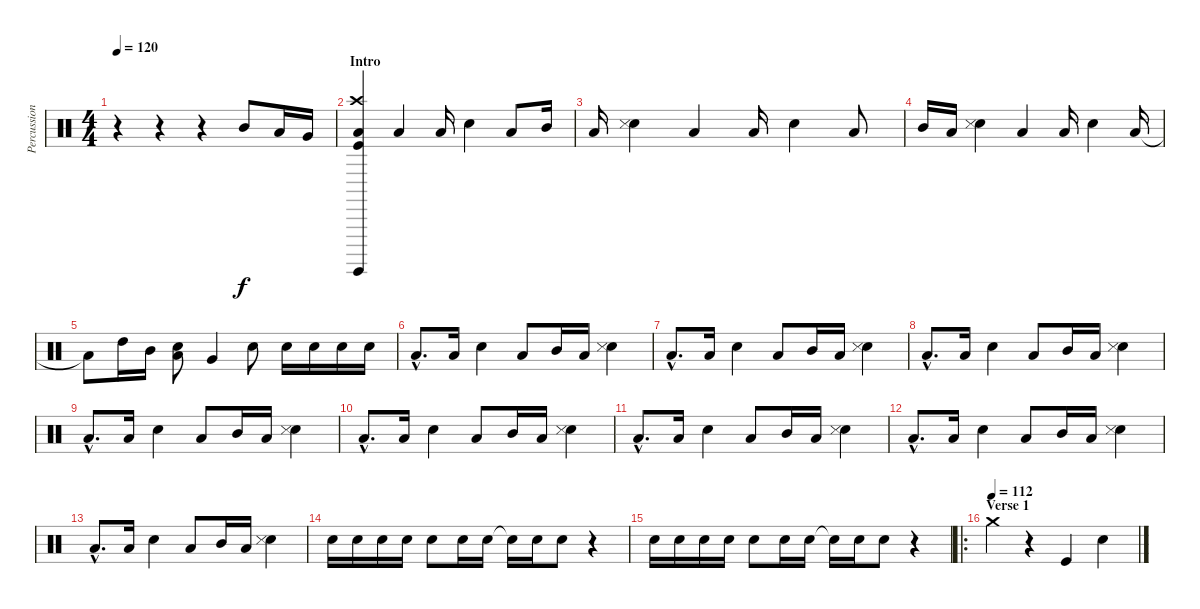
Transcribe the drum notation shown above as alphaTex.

\track ("Percussion 1" "Percussion") {instrument percussion}
\staff {score}
\articulation defaults
\ts (4 4)
\tempo 120
\clef neutral
\ks c
r.4{dy f} r.4 r.4 "Mid Tom (hit)".8 "Low Tom (hit)".16 "Very Low Tom (hit)".16 |
\section ("" "Intro")
("Crash high (hit)" "Kick (hit)" "Surdo (hit)" "Low Tom (hit)").4 "Low Tom (hit)".4 "Low Tom (hit)".16 "Electric Snare (hit)".4 "Low Tom (hit)".8 "Mid Tom (hit)".16 |
"Low Tom (hit)".16 ("Electric Snare (hit)" "Metronome (hit)").4 "Low Tom (hit)".4 "Low Tom (hit)".16 "Electric Snare (hit)".4 "Low Tom (hit)".8 |
"Mid Tom (hit)".16 "Low Tom (hit)".16 ("Electric Snare (hit)" "Metronome (hit)").4 "Low Tom (hit)".4 "Low Tom (hit)".16 "Electric Snare (hit)".4 "Low Tom (hit)".16 |
"Low Tom (hit)"{t}.8 "High Tom (hit)".16 "Mid Tom (hit)".16 ("Electric Snare (hit)" "Low Tom (hit)").8 "Very Low Tom (hit)".4 "Electric Snare (hit)".8 "Electric Snare (hit)".16 "Electric Snare (hit)".16 "Electric Snare (hit)".16 "Electric Snare (hit)".16 |
"Low Tom (hit)"{hac}.8{d volume 12} "Low Tom (hit)".16 "Electric Snare (hit)".4 "Low Tom (hit)".8 "Mid Tom (hit)".16 "Low Tom (hit)".16 ("Electric Snare (hit)" "Metronome (hit)").4 |
"Low Tom (hit)"{hac}.8{d volume 12} "Low Tom (hit)".16 "Electric Snare (hit)".4 "Low Tom (hit)".8 "Mid Tom (hit)".16 "Low Tom (hit)".16 ("Electric Snare (hit)" "Metronome (hit)").4 |
"Low Tom (hit)"{hac}.8{d volume 12} "Low Tom (hit)".16 "Electric Snare (hit)".4 "Low Tom (hit)".8 "Mid Tom (hit)".16 "Low Tom (hit)".16 ("Electric Snare (hit)" "Metronome (hit)").4 |
"Low Tom (hit)"{hac}.8{d volume 12} "Low Tom (hit)".16 "Electric Snare (hit)".4 "Low Tom (hit)".8 "Mid Tom (hit)".16 "Low Tom (hit)".16 ("Electric Snare (hit)" "Metronome (hit)").4 |
"Low Tom (hit)"{hac}.8{d volume 12} "Low Tom (hit)".16 "Electric Snare (hit)".4 "Low Tom (hit)".8 "Mid Tom (hit)".16 "Low Tom (hit)".16 ("Electric Snare (hit)" "Metronome (hit)").4 |
"Low Tom (hit)"{hac}.8{d volume 12} "Low Tom (hit)".16 "Electric Snare (hit)".4 "Low Tom (hit)".8 "Mid Tom (hit)".16 "Low Tom (hit)".16 ("Electric Snare (hit)" "Metronome (hit)").4 |
"Low Tom (hit)"{hac}.8{d volume 12} "Low Tom (hit)".16 "Electric Snare (hit)".4 "Low Tom (hit)".8 "Mid Tom (hit)".16 "Low Tom (hit)".16 ("Electric Snare (hit)" "Metronome (hit)").4 |
"Low Tom (hit)"{hac}.8{d volume 12} "Low Tom (hit)".16 "Electric Snare (hit)".4 "Low Tom (hit)".8 "Mid Tom (hit)".16 "Low Tom (hit)".16 ("Electric Snare (hit)" "Metronome (hit)").4 |
"Electric Snare (hit)".16{volume 15} "Electric Snare (hit)".16 "Electric Snare (hit)".16 "Electric Snare (hit)".16 "Electric Snare (hit)".8 "Electric Snare (hit)".16 "Electric Snare (hit)".16 "Electric Snare (hit)"{t}.16 "Electric Snare (hit)".16 "Electric Snare (hit)".8 r.4 |
"Electric Snare (hit)".16 "Electric Snare (hit)".16 "Electric Snare (hit)".16 "Electric Snare (hit)".16 "Electric Snare (hit)".8 "Electric Snare (hit)".16 "Electric Snare (hit)".16 "Electric Snare (hit)"{t}.16 "Electric Snare (hit)".16 "Electric Snare (hit)".8 r.4 |
\ro
\section ("" "Verse 1")
\tempo (112)
"Crash medium (hit)".4 r.4 "Kick (hit)".4 "Electric Snare (hit)".4
